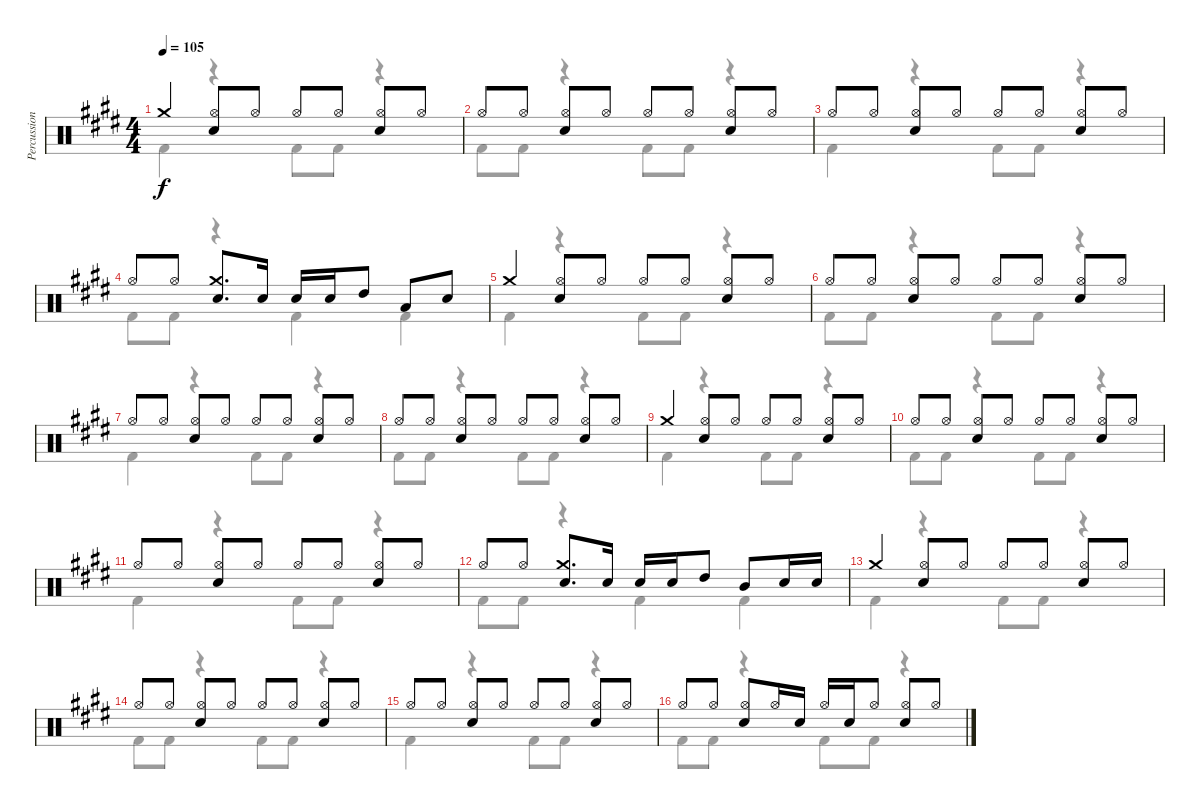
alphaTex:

\track ("Percussion" "Percussion") {instrument percussion}
\staff {score}
\articulation defaults
\voice
\ts (4 4)
\tempo 105
\clef neutral
\ks e "Crash medium (hit)".4{dy f}
("Hi-Hat (open)" "Snare (hit) 2").8 "Hi-Hat (open)".8 "Hi-Hat (open)".8 "Hi-Hat (open)".8 ("Hi-Hat (open)" "Snare (hit) 2").8 "Hi-Hat (open)".8 |
"Hi-Hat (open)".8 "Hi-Hat (open)".8 ("Hi-Hat (open)" "Snare (hit) 2").8 "Hi-Hat (open)".8 "Hi-Hat (open)".8 "Hi-Hat (open)".8 ("Hi-Hat (open)" "Snare (hit) 2").8 "Hi-Hat (open)".8 |
"Hi-Hat (open)".8 "Hi-Hat (open)".8 ("Hi-Hat (open)" "Snare (hit) 2").8 "Hi-Hat (open)".8 "Hi-Hat (open)".8 "Hi-Hat (open)".8 ("Hi-Hat (open)" "Snare (hit) 2").8 "Hi-Hat (open)".8 |
"Hi-Hat (open)".8 "Hi-Hat (open)".8 ("Crash medium (hit)" "Snare (hit) 2").8{d} "Snare (hit) 2".16 "Snare (hit) 2".16 "Snare (hit) 2".16 "High Tom (hit)".8 "Low Tom (hit)".8 "Snare (hit) 2".8 |
"Crash medium (hit)".4 ("Hi-Hat (open)" "Snare (hit) 2").8 "Hi-Hat (open)".8 "Hi-Hat (open)".8 "Hi-Hat (open)".8 ("Hi-Hat (open)" "Snare (hit) 2").8 "Hi-Hat (open)".8 |
"Hi-Hat (open)".8 "Hi-Hat (open)".8 ("Hi-Hat (open)" "Snare (hit) 2").8 "Hi-Hat (open)".8 "Hi-Hat (open)".8 "Hi-Hat (open)".8 ("Hi-Hat (open)" "Snare (hit) 2").8 "Hi-Hat (open)".8 |
"Hi-Hat (open)".8 "Hi-Hat (open)".8 ("Hi-Hat (open)" "Snare (hit) 2").8 "Hi-Hat (open)".8 "Hi-Hat (open)".8 "Hi-Hat (open)".8 ("Hi-Hat (open)" "Snare (hit) 2").8 "Hi-Hat (open)".8 |
"Hi-Hat (open)".8 "Hi-Hat (open)".8 ("Hi-Hat (open)" "Snare (hit) 2").8 "Hi-Hat (open)".8 "Hi-Hat (open)".8 "Hi-Hat (open)".8 ("Hi-Hat (open)" "Snare (hit) 2").8 "Hi-Hat (open)".8 |
"Crash medium (hit)".4 ("Hi-Hat (open)" "Snare (hit) 2").8 "Hi-Hat (open)".8 "Hi-Hat (open)".8 "Hi-Hat (open)".8 ("Hi-Hat (open)" "Snare (hit) 2").8 "Hi-Hat (open)".8 |
"Hi-Hat (open)".8 "Hi-Hat (open)".8 ("Hi-Hat (open)" "Snare (hit) 2").8 "Hi-Hat (open)".8 "Hi-Hat (open)".8 "Hi-Hat (open)".8 ("Hi-Hat (open)" "Snare (hit) 2").8 "Hi-Hat (open)".8 |
"Hi-Hat (open)".8 "Hi-Hat (open)".8 ("Hi-Hat (open)" "Snare (hit) 2").8 "Hi-Hat (open)".8 "Hi-Hat (open)".8 "Hi-Hat (open)".8 ("Hi-Hat (open)" "Snare (hit) 2").8 "Hi-Hat (open)".8 |
"Hi-Hat (open)".8 "Hi-Hat (open)".8 ("Crash medium (hit)" "Snare (hit) 2").8{d} "Snare (hit) 2".16 "Snare (hit) 2".16 "Snare (hit) 2".16 "High Tom (hit)".8 "Mid Tom (hit)".8 "Snare (hit) 2".16 "Snare (hit) 2".16 |
"Crash medium (hit)".4 ("Hi-Hat (open)" "Snare (hit) 2").8 "Hi-Hat (open)".8 "Hi-Hat (open)".8 "Hi-Hat (open)".8 ("Hi-Hat (open)" "Snare (hit) 2").8 "Hi-Hat (open)".8 |
"Hi-Hat (open)".8 "Hi-Hat (open)".8 ("Hi-Hat (open)" "Snare (hit) 2").8 "Hi-Hat (open)".8 "Hi-Hat (open)".8 "Hi-Hat (open)".8 ("Hi-Hat (open)" "Snare (hit) 2").8 "Hi-Hat (open)".8 |
"Hi-Hat (open)".8 "Hi-Hat (open)".8 ("Hi-Hat (open)" "Snare (hit) 2").8 "Hi-Hat (open)".8 "Hi-Hat (open)".8 "Hi-Hat (open)".8 ("Hi-Hat (open)" "Snare (hit) 2").8 "Hi-Hat (open)".8 |
"Hi-Hat (open)".8 "Hi-Hat (open)".8 ("Hi-Hat (open)" "Snare (hit) 2").8 "Hi-Hat (open)".16 "Snare (hit) 2".16 "Hi-Hat (open)".16 "Snare (hit) 2".16 "Hi-Hat (open)".8 ("Hi-Hat (open)" "Snare (hit) 2").8 "Hi-Hat (open)".8
\voice
\clef neutral
\ottava regular
\simile none
\ks e "Kick (hit) 2".4{dy f}
r.4 "Kick (hit) 2".8 "Kick (hit) 2".8 r.4 |
"Kick (hit) 2".8 "Kick (hit) 2".8 r.4 "Kick (hit) 2".8 "Kick (hit) 2".8 r.4 |
"Kick (hit) 2".4 r.4 "Kick (hit) 2".8 "Kick (hit) 2".8 r.4 |
"Kick (hit) 2".8 "Kick (hit) 2".8 r.4 "Kick (hit) 2".4 "Kick (hit) 2".4 |
"Kick (hit) 2".4 r.4 "Kick (hit) 2".8 "Kick (hit) 2".8 r.4 |
"Kick (hit) 2".8 "Kick (hit) 2".8 r.4 "Kick (hit) 2".8 "Kick (hit) 2".8 r.4 |
"Kick (hit) 2".4 r.4 "Kick (hit) 2".8 "Kick (hit) 2".8 r.4 |
"Kick (hit) 2".8 "Kick (hit) 2".8 r.4 "Kick (hit) 2".8 "Kick (hit) 2".8 r.4 |
"Kick (hit) 2".4 r.4 "Kick (hit) 2".8 "Kick (hit) 2".8 r.4 |
"Kick (hit) 2".8 "Kick (hit) 2".8 r.4 "Kick (hit) 2".8 "Kick (hit) 2".8 r.4 |
"Kick (hit) 2".4 r.4 "Kick (hit) 2".8 "Kick (hit) 2".8 r.4 |
"Kick (hit) 2".8 "Kick (hit) 2".8 r.4 "Kick (hit) 2".4 "Kick (hit) 2".4 |
"Kick (hit) 2".4 r.4 "Kick (hit) 2".8 "Kick (hit) 2".8 r.4 |
"Kick (hit) 2".8 "Kick (hit) 2".8 r.4 "Kick (hit) 2".8 "Kick (hit) 2".8 r.4 |
"Kick (hit) 2".4 r.4 "Kick (hit) 2".8 "Kick (hit) 2".8 r.4 |
"Kick (hit) 2".8 "Kick (hit) 2".8 r.4 "Kick (hit) 2".8 "Kick (hit) 2".8 r.4
